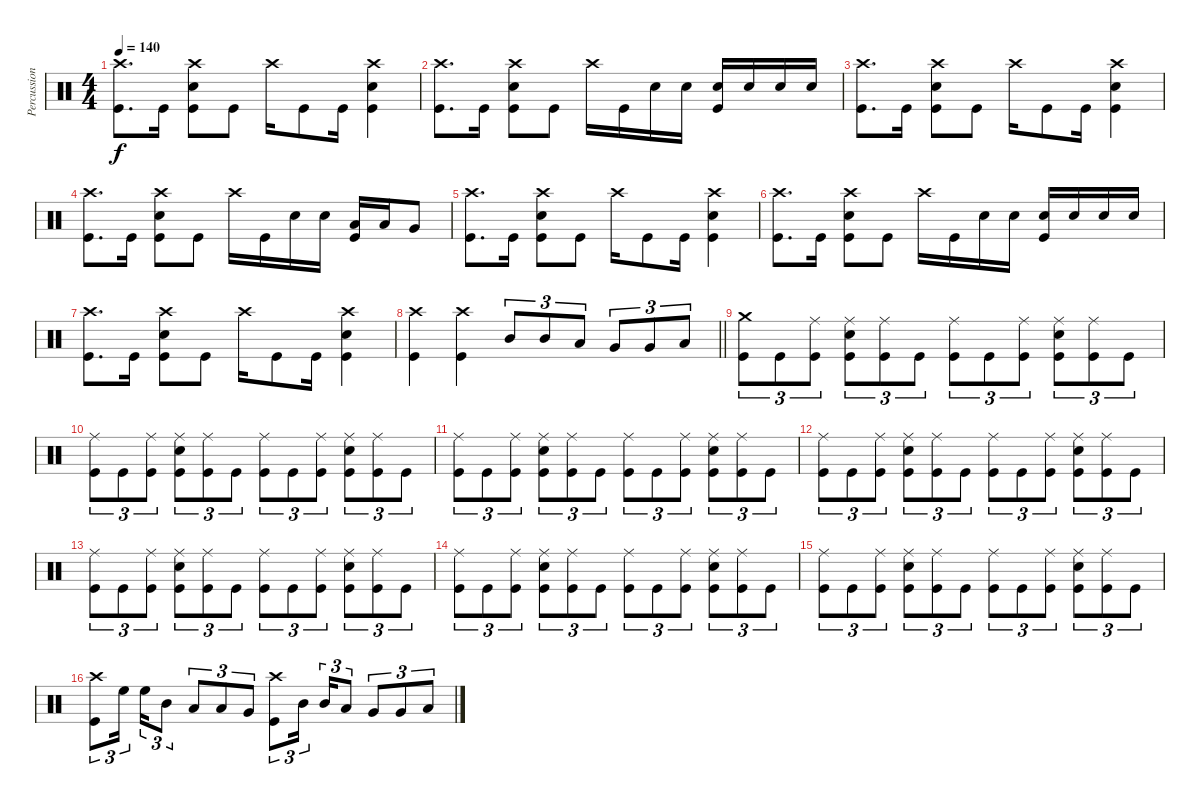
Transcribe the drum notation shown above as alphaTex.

\track ("Percussion" "Percussion") {instrument percussion}
\staff {score}
\articulation defaults
\ts (4 4)
\tempo 140
\clef neutral
\ks c
("Crash high (hit)" "Kick (hit)").8{d dy f} "Kick (hit)".16 ("Crash high (hit)" "Snare (hit) 2" "Kick (hit)").8 "Kick (hit)".8 "Crash high (hit)".16 "Kick (hit)".8 "Kick (hit)".16 ("Crash high (hit)" "Snare (hit) 2" "Kick (hit)").4 |
("Crash high (hit)" "Kick (hit)").8{d} "Kick (hit)".16 ("Crash high (hit)" "Snare (hit) 2" "Kick (hit)").8 "Kick (hit)".8 "Crash high (hit)".16 "Kick (hit)".16 "Snare (hit) 2".16 "Snare (hit) 2".16 ("Snare (hit) 2" "Kick (hit)").16 "Snare (hit) 2".16 "Snare (hit) 2".16 "Snare (hit) 2".16 |
("Crash high (hit)" "Kick (hit)").8{d} "Kick (hit)".16 ("Crash high (hit)" "Snare (hit) 2" "Kick (hit)").8 "Kick (hit)".8 "Crash high (hit)".16 "Kick (hit)".8 "Kick (hit)".16 ("Crash high (hit)" "Snare (hit) 2" "Kick (hit)").4 |
("Crash high (hit)" "Kick (hit)").8{d} "Kick (hit)".16 ("Crash high (hit)" "Snare (hit) 2" "Kick (hit)").8 "Kick (hit)".8 "Crash high (hit)".16 "Kick (hit)".16 "Snare (hit) 2".16 "Snare (hit) 2".16 ("Low Tom (hit)" "Kick (hit)").16 "Low Tom (hit)".16 "Very Low Tom (hit)".8 |
("Crash high (hit)" "Kick (hit)").8{d} "Kick (hit)".16 ("Crash high (hit)" "Snare (hit) 2" "Kick (hit)").8 "Kick (hit)".8 "Crash high (hit)".16 "Kick (hit)".8 "Kick (hit)".16 ("Crash high (hit)" "Snare (hit) 2" "Kick (hit)").4 |
("Crash high (hit)" "Kick (hit)").8{d} "Kick (hit)".16 ("Crash high (hit)" "Snare (hit) 2" "Kick (hit)").8 "Kick (hit)".8 "Crash high (hit)".16 "Kick (hit)".16 "Snare (hit) 2".16 "Snare (hit) 2".16 ("Snare (hit) 2" "Kick (hit)").16 "Snare (hit) 2".16 "Snare (hit) 2".16 "Snare (hit) 2".16 |
("Crash high (hit)" "Kick (hit)").8{d} "Kick (hit)".16 ("Crash high (hit)" "Snare (hit) 2" "Kick (hit)").8 "Kick (hit)".8 "Crash high (hit)".16 "Kick (hit)".8 "Kick (hit)".16 ("Crash high (hit)" "Snare (hit) 2" "Kick (hit)").4 |
\barLineRight lightlight
("Crash high (hit)" "Kick (hit)").4 ("Crash high (hit)" "Kick (hit)").4 "Mid Tom (hit)".8{tu (3 2)} "Mid Tom (hit)".8{tu (3 2)} "Low Tom (hit)".8{tu (3 2)} "Very Low Tom (hit)".8{tu (3 2)} "Very Low Tom (hit)".8{tu (3 2)} "Low Floor Tom (hit)".8{tu (3 2)} |
("Crash medium (hit)" "Kick (hit)").8{tu (3 2)} "Kick (hit)".8{tu (3 2)} ("Ride (middle)" "Kick (hit)").8{tu (3 2)} ("Ride (middle)" "Snare (hit) 2" "Kick (hit)").8{tu (3 2)} ("Ride (middle)" "Kick (hit)").8{tu (3 2)} "Kick (hit)".8{tu (3 2)} ("Ride (middle)" "Kick (hit)").8{tu (3 2)} "Kick (hit)".8{tu (3 2)} ("Ride (middle)" "Kick (hit)").8{tu (3 2)} ("Ride (middle)" "Snare (hit) 2" "Kick (hit)").8{tu (3 2)} ("Ride (middle)" "Kick (hit)").8{tu (3 2)} "Kick (hit)".8{tu (3 2)} |
("Ride (middle)" "Kick (hit)").8{tu (3 2)} "Kick (hit)".8{tu (3 2)} ("Ride (middle)" "Kick (hit)").8{tu (3 2)} ("Ride (middle)" "Snare (hit) 2" "Kick (hit)").8{tu (3 2)} ("Ride (middle)" "Kick (hit)").8{tu (3 2)} "Kick (hit)".8{tu (3 2)} ("Ride (middle)" "Kick (hit)").8{tu (3 2)} "Kick (hit)".8{tu (3 2)} ("Ride (middle)" "Kick (hit)").8{tu (3 2)} ("Ride (middle)" "Snare (hit) 2" "Kick (hit)").8{tu (3 2)} ("Ride (middle)" "Kick (hit)").8{tu (3 2)} "Kick (hit)".8{tu (3 2)} |
("Ride (middle)" "Kick (hit)").8{tu (3 2)} "Kick (hit)".8{tu (3 2)} ("Ride (middle)" "Kick (hit)").8{tu (3 2)} ("Ride (middle)" "Snare (hit) 2" "Kick (hit)").8{tu (3 2)} ("Ride (middle)" "Kick (hit)").8{tu (3 2)} "Kick (hit)".8{tu (3 2)} ("Ride (middle)" "Kick (hit)").8{tu (3 2)} "Kick (hit)".8{tu (3 2)} ("Ride (middle)" "Kick (hit)").8{tu (3 2)} ("Ride (middle)" "Snare (hit) 2" "Kick (hit)").8{tu (3 2)} ("Ride (middle)" "Kick (hit)").8{tu (3 2)} "Kick (hit)".8{tu (3 2)} |
("Ride (middle)" "Kick (hit)").8{tu (3 2)} "Kick (hit)".8{tu (3 2)} ("Ride (middle)" "Kick (hit)").8{tu (3 2)} ("Ride (middle)" "Snare (hit) 2" "Kick (hit)").8{tu (3 2)} ("Ride (middle)" "Kick (hit)").8{tu (3 2)} "Kick (hit)".8{tu (3 2)} ("Ride (middle)" "Kick (hit)").8{tu (3 2)} "Kick (hit)".8{tu (3 2)} ("Ride (middle)" "Kick (hit)").8{tu (3 2)} ("Ride (middle)" "Snare (hit) 2" "Kick (hit)").8{tu (3 2)} ("Ride (middle)" "Kick (hit)").8{tu (3 2)} "Kick (hit)".8{tu (3 2)} |
("Ride (middle)" "Kick (hit)").8{tu (3 2)} "Kick (hit)".8{tu (3 2)} ("Ride (middle)" "Kick (hit)").8{tu (3 2)} ("Ride (middle)" "Snare (hit) 2" "Kick (hit)").8{tu (3 2)} ("Ride (middle)" "Kick (hit)").8{tu (3 2)} "Kick (hit)".8{tu (3 2)} ("Ride (middle)" "Kick (hit)").8{tu (3 2)} "Kick (hit)".8{tu (3 2)} ("Ride (middle)" "Kick (hit)").8{tu (3 2)} ("Ride (middle)" "Snare (hit) 2" "Kick (hit)").8{tu (3 2)} ("Ride (middle)" "Kick (hit)").8{tu (3 2)} "Kick (hit)".8{tu (3 2)} |
("Ride (middle)" "Kick (hit)").8{tu (3 2)} "Kick (hit)".8{tu (3 2)} ("Ride (middle)" "Kick (hit)").8{tu (3 2)} ("Ride (middle)" "Snare (hit) 2" "Kick (hit)").8{tu (3 2)} ("Ride (middle)" "Kick (hit)").8{tu (3 2)} "Kick (hit)".8{tu (3 2)} ("Ride (middle)" "Kick (hit)").8{tu (3 2)} "Kick (hit)".8{tu (3 2)} ("Ride (middle)" "Kick (hit)").8{tu (3 2)} ("Ride (middle)" "Snare (hit) 2" "Kick (hit)").8{tu (3 2)} ("Ride (middle)" "Kick (hit)").8{tu (3 2)} "Kick (hit)".8{tu (3 2)} |
("Ride (middle)" "Kick (hit)").8{tu (3 2)} "Kick (hit)".8{tu (3 2)} ("Ride (middle)" "Kick (hit)").8{tu (3 2)} ("Ride (middle)" "Snare (hit) 2" "Kick (hit)").8{tu (3 2)} ("Ride (middle)" "Kick (hit)").8{tu (3 2)} "Kick (hit)".8{tu (3 2)} ("Ride (middle)" "Kick (hit)").8{tu (3 2)} "Kick (hit)".8{tu (3 2)} ("Ride (middle)" "Kick (hit)").8{tu (3 2)} ("Ride (middle)" "Snare (hit) 2" "Kick (hit)").8{tu (3 2)} ("Ride (middle)" "Kick (hit)").8{tu (3 2)} "Kick (hit)".8{tu (3 2)} |
("Crash high (hit)" "Kick (hit)").8{tu (3 2)} "High Floor Tom (hit)".16{tu (3 2) beam splitsecondary} "High Floor Tom (hit)".16{tu (3 2)} "Mid Tom (hit)".8{tu (3 2)} "Low Tom (hit)".8{tu (3 2)} "Low Tom (hit)".8{tu (3 2)} "Very Low Tom (hit)".8{tu (3 2)} ("Crash high (hit)" "Kick (hit)").8{tu (3 2)} "Mid Tom (hit)".16{tu (3 2) beam splitsecondary} "Mid Tom (hit)".16{tu (3 2)} "Low Tom (hit)".8{tu (3 2)} "Very Low Tom (hit)".8{tu (3 2)} "Very Low Tom (hit)".8{tu (3 2)} "Low Floor Tom (hit)".8{tu (3 2)}
